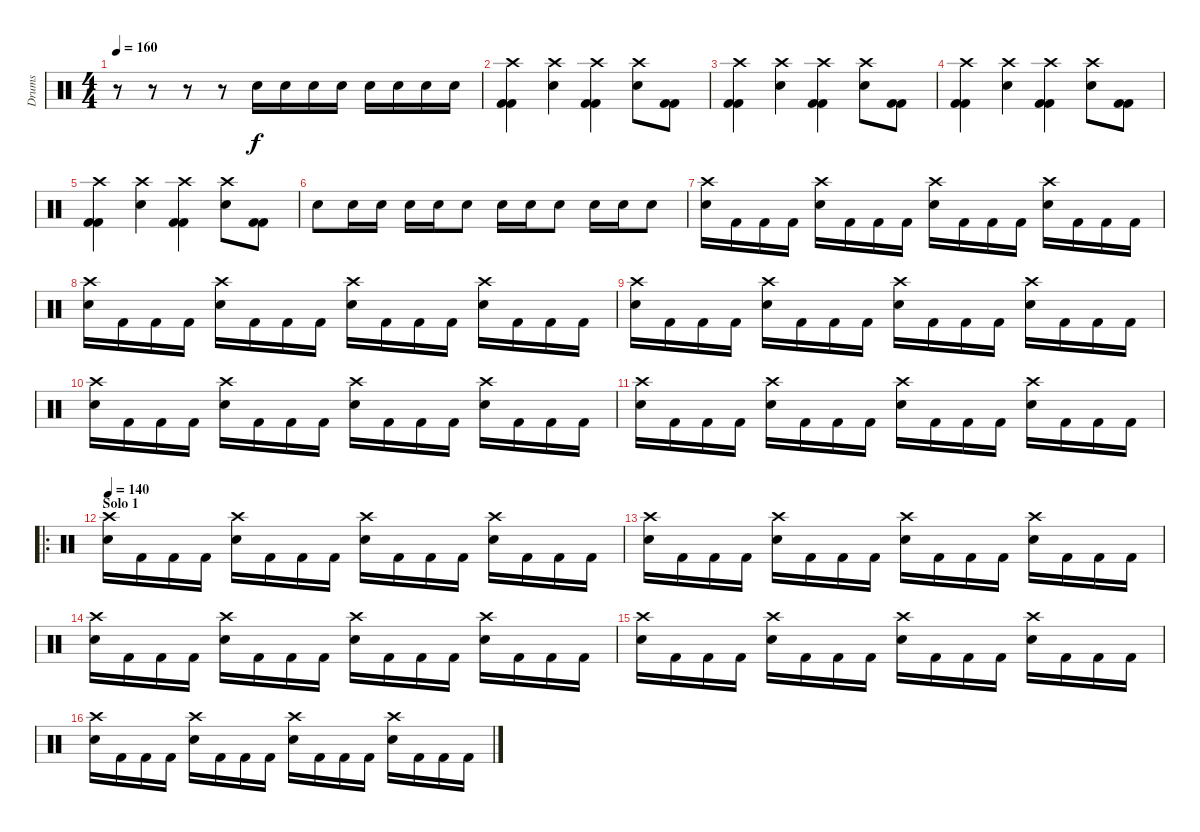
\track ("Drums" "Drums") {instrument percussion}
\staff {score}
\articulation defaults
\ts (4 4)
\tempo 160
\clef neutral
\ks c
r.8{dy f} r.8 r.8 r.8 "Electric Snare (hit)".16 "Electric Snare (hit)".16 "Electric Snare (hit)".16 "Electric Snare (hit)".16 "Electric Snare (hit)".16 "Electric Snare (hit)".16 "Electric Snare (hit)".16 "Electric Snare (hit)".16 |
("Crash high (hit)" "Kick (hit) 2" "Kick (hit) 2").4 ("Electric Snare (hit)" "Crash high (hit)").4 ("Kick (hit) 2" "Kick (hit) 2" "Crash high (hit)").4 ("Crash high (hit)" "Electric Snare (hit)").8 ("Kick (hit) 2" "Kick (hit) 2").8 |
("Crash high (hit)" "Kick (hit) 2" "Kick (hit) 2").4 ("Electric Snare (hit)" "Crash high (hit)").4 ("Kick (hit) 2" "Kick (hit) 2" "Crash high (hit)").4 ("Crash high (hit)" "Electric Snare (hit)").8 ("Kick (hit) 2" "Kick (hit) 2").8 |
("Crash high (hit)" "Kick (hit) 2" "Kick (hit) 2").4 ("Electric Snare (hit)" "Crash high (hit)").4 ("Kick (hit) 2" "Kick (hit) 2" "Crash high (hit)").4 ("Crash high (hit)" "Electric Snare (hit)").8 ("Kick (hit) 2" "Kick (hit) 2").8 |
("Crash high (hit)" "Kick (hit) 2" "Kick (hit) 2").4 ("Electric Snare (hit)" "Crash high (hit)").4 ("Kick (hit) 2" "Kick (hit) 2" "Crash high (hit)").4 ("Crash high (hit)" "Electric Snare (hit)").8 ("Kick (hit) 2" "Kick (hit) 2").8 |
"Electric Snare (hit)".8 "Electric Snare (hit)".16 "Electric Snare (hit)".16 "Electric Snare (hit)".16 "Electric Snare (hit)".16 "Electric Snare (hit)".8 "Electric Snare (hit)".16 "Electric Snare (hit)".16 "Electric Snare (hit)".8 "Electric Snare (hit)".16 "Electric Snare (hit)".16 "Electric Snare (hit)".8 |
("Crash high (hit)" "Electric Snare (hit)").16 "Kick (hit) 2".16 "Kick (hit) 2".16 "Kick (hit) 2".16 ("Electric Snare (hit)" "Crash high (hit)").16 "Kick (hit) 2".16 "Kick (hit) 2".16 "Kick (hit) 2".16 ("Crash high (hit)" "Electric Snare (hit)").16 "Kick (hit) 2".16 "Kick (hit) 2".16 "Kick (hit) 2".16 ("Electric Snare (hit)" "Crash high (hit)").16 "Kick (hit) 2".16 "Kick (hit) 2".16 "Kick (hit) 2".16 |
("Crash high (hit)" "Electric Snare (hit)").16 "Kick (hit) 2".16 "Kick (hit) 2".16 "Kick (hit) 2".16 ("Electric Snare (hit)" "Crash high (hit)").16 "Kick (hit) 2".16 "Kick (hit) 2".16 "Kick (hit) 2".16 ("Crash high (hit)" "Electric Snare (hit)").16 "Kick (hit) 2".16 "Kick (hit) 2".16 "Kick (hit) 2".16 ("Electric Snare (hit)" "Crash high (hit)").16 "Kick (hit) 2".16 "Kick (hit) 2".16 "Kick (hit) 2".16 |
("Crash high (hit)" "Electric Snare (hit)").16 "Kick (hit) 2".16 "Kick (hit) 2".16 "Kick (hit) 2".16 ("Electric Snare (hit)" "Crash high (hit)").16 "Kick (hit) 2".16 "Kick (hit) 2".16 "Kick (hit) 2".16 ("Crash high (hit)" "Electric Snare (hit)").16 "Kick (hit) 2".16 "Kick (hit) 2".16 "Kick (hit) 2".16 ("Electric Snare (hit)" "Crash high (hit)").16 "Kick (hit) 2".16 "Kick (hit) 2".16 "Kick (hit) 2".16 |
("Crash high (hit)" "Electric Snare (hit)").16 "Kick (hit) 2".16 "Kick (hit) 2".16 "Kick (hit) 2".16 ("Electric Snare (hit)" "Crash high (hit)").16 "Kick (hit) 2".16 "Kick (hit) 2".16 "Kick (hit) 2".16 ("Crash high (hit)" "Electric Snare (hit)").16 "Kick (hit) 2".16 "Kick (hit) 2".16 "Kick (hit) 2".16 ("Electric Snare (hit)" "Crash high (hit)").16 "Kick (hit) 2".16 "Kick (hit) 2".16 "Kick (hit) 2".16 |
("Crash high (hit)" "Electric Snare (hit)").16 "Kick (hit) 2".16 "Kick (hit) 2".16 "Kick (hit) 2".16 ("Electric Snare (hit)" "Crash high (hit)").16 "Kick (hit) 2".16 "Kick (hit) 2".16 "Kick (hit) 2".16 ("Crash high (hit)" "Electric Snare (hit)").16 "Kick (hit) 2".16 "Kick (hit) 2".16 "Kick (hit) 2".16 ("Electric Snare (hit)" "Crash high (hit)").16 "Kick (hit) 2".16 "Kick (hit) 2".16 "Kick (hit) 2".16 |
\ro
\section ("" "Solo 1")
\tempo 140
("Crash high (hit)" "Electric Snare (hit)").16 "Kick (hit) 2".16 "Kick (hit) 2".16 "Kick (hit) 2".16 ("Electric Snare (hit)" "Crash high (hit)").16 "Kick (hit) 2".16 "Kick (hit) 2".16 "Kick (hit) 2".16 ("Crash high (hit)" "Electric Snare (hit)").16 "Kick (hit) 2".16 "Kick (hit) 2".16 "Kick (hit) 2".16 ("Electric Snare (hit)" "Crash high (hit)").16 "Kick (hit) 2".16 "Kick (hit) 2".16 "Kick (hit) 2".16 |
("Crash high (hit)" "Electric Snare (hit)").16 "Kick (hit) 2".16 "Kick (hit) 2".16 "Kick (hit) 2".16 ("Electric Snare (hit)" "Crash high (hit)").16 "Kick (hit) 2".16 "Kick (hit) 2".16 "Kick (hit) 2".16 ("Crash high (hit)" "Electric Snare (hit)").16 "Kick (hit) 2".16 "Kick (hit) 2".16 "Kick (hit) 2".16 ("Electric Snare (hit)" "Crash high (hit)").16 "Kick (hit) 2".16 "Kick (hit) 2".16 "Kick (hit) 2".16 |
("Crash high (hit)" "Electric Snare (hit)").16 "Kick (hit) 2".16 "Kick (hit) 2".16 "Kick (hit) 2".16 ("Electric Snare (hit)" "Crash high (hit)").16 "Kick (hit) 2".16 "Kick (hit) 2".16 "Kick (hit) 2".16 ("Crash high (hit)" "Electric Snare (hit)").16 "Kick (hit) 2".16 "Kick (hit) 2".16 "Kick (hit) 2".16 ("Electric Snare (hit)" "Crash high (hit)").16 "Kick (hit) 2".16 "Kick (hit) 2".16 "Kick (hit) 2".16 |
("Crash high (hit)" "Electric Snare (hit)").16 "Kick (hit) 2".16 "Kick (hit) 2".16 "Kick (hit) 2".16 ("Electric Snare (hit)" "Crash high (hit)").16 "Kick (hit) 2".16 "Kick (hit) 2".16 "Kick (hit) 2".16 ("Crash high (hit)" "Electric Snare (hit)").16 "Kick (hit) 2".16 "Kick (hit) 2".16 "Kick (hit) 2".16 ("Electric Snare (hit)" "Crash high (hit)").16 "Kick (hit) 2".16 "Kick (hit) 2".16 "Kick (hit) 2".16 |
("Crash high (hit)" "Electric Snare (hit)").16 "Kick (hit) 2".16 "Kick (hit) 2".16 "Kick (hit) 2".16 ("Electric Snare (hit)" "Crash high (hit)").16 "Kick (hit) 2".16 "Kick (hit) 2".16 "Kick (hit) 2".16 ("Crash high (hit)" "Electric Snare (hit)").16 "Kick (hit) 2".16 "Kick (hit) 2".16 "Kick (hit) 2".16 ("Electric Snare (hit)" "Crash high (hit)").16 "Kick (hit) 2".16 "Kick (hit) 2".16 "Kick (hit) 2".16
